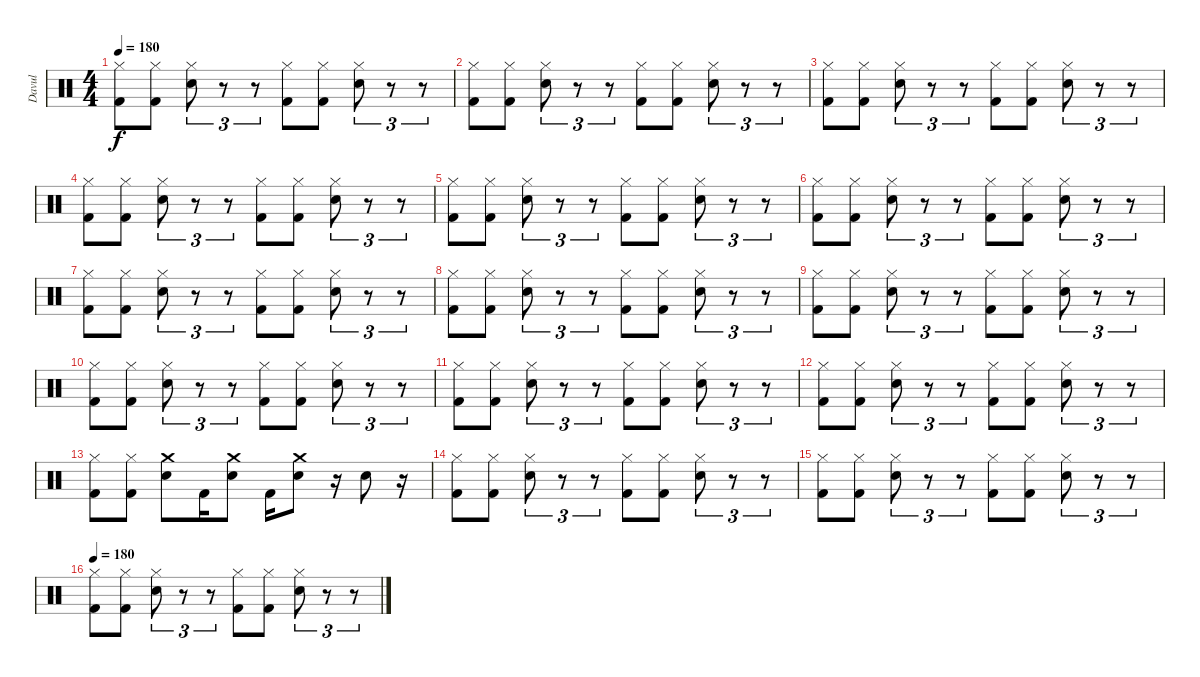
\track ("Davul" "Davul") {instrument percussion}
\staff {score}
\articulation defaults
\ts (4 4)
\tempo 180
\clef neutral
\ks c
("Hi-Hat (closed)" "Kick (hit) 2").8{dy f} ("Hi-Hat (closed)" "Kick (hit) 2").8 ("Hi-Hat (closed)" "Snare (hit) 2").8{tu (3 2)} r.8{tu (3 2)} r.8{tu (3 2)} ("Hi-Hat (closed)" "Kick (hit) 2").8 ("Hi-Hat (closed)" "Kick (hit) 2").8 ("Hi-Hat (closed)" "Snare (hit) 2").8{tu (3 2)} r.8{tu (3 2)} r.8{tu (3 2)} |
("Hi-Hat (closed)" "Kick (hit) 2").8 ("Hi-Hat (closed)" "Kick (hit) 2").8 ("Hi-Hat (closed)" "Snare (hit) 2").8{tu (3 2)} r.8{tu (3 2)} r.8{tu (3 2)} ("Hi-Hat (closed)" "Kick (hit) 2").8 ("Hi-Hat (closed)" "Kick (hit) 2").8 ("Hi-Hat (closed)" "Snare (hit) 2").8{tu (3 2)} r.8{tu (3 2)} r.8{tu (3 2)} |
("Hi-Hat (closed)" "Kick (hit) 2").8 ("Hi-Hat (closed)" "Kick (hit) 2").8 ("Hi-Hat (closed)" "Snare (hit) 2").8{tu (3 2)} r.8{tu (3 2)} r.8{tu (3 2)} ("Hi-Hat (closed)" "Kick (hit) 2").8 ("Hi-Hat (closed)" "Kick (hit) 2").8 ("Hi-Hat (closed)" "Snare (hit) 2").8{tu (3 2)} r.8{tu (3 2)} r.8{tu (3 2)} |
("Hi-Hat (closed)" "Kick (hit) 2").8 ("Hi-Hat (closed)" "Kick (hit) 2").8 ("Hi-Hat (closed)" "Snare (hit) 2").8{tu (3 2)} r.8{tu (3 2)} r.8{tu (3 2)} ("Hi-Hat (closed)" "Kick (hit) 2").8 ("Hi-Hat (closed)" "Kick (hit) 2").8 ("Hi-Hat (closed)" "Snare (hit) 2").8{tu (3 2)} r.8{tu (3 2)} r.8{tu (3 2)} |
("Hi-Hat (closed)" "Kick (hit) 2").8 ("Hi-Hat (closed)" "Kick (hit) 2").8 ("Hi-Hat (closed)" "Snare (hit) 2").8{tu (3 2)} r.8{tu (3 2)} r.8{tu (3 2)} ("Hi-Hat (closed)" "Kick (hit) 2").8 ("Hi-Hat (closed)" "Kick (hit) 2").8 ("Hi-Hat (closed)" "Snare (hit) 2").8{tu (3 2)} r.8{tu (3 2)} r.8{tu (3 2)} |
("Hi-Hat (closed)" "Kick (hit) 2").8 ("Hi-Hat (closed)" "Kick (hit) 2").8 ("Hi-Hat (closed)" "Snare (hit) 2").8{tu (3 2)} r.8{tu (3 2)} r.8{tu (3 2)} ("Hi-Hat (closed)" "Kick (hit) 2").8 ("Hi-Hat (closed)" "Kick (hit) 2").8 ("Hi-Hat (closed)" "Snare (hit) 2").8{tu (3 2)} r.8{tu (3 2)} r.8{tu (3 2)} |
("Hi-Hat (closed)" "Kick (hit) 2").8 ("Hi-Hat (closed)" "Kick (hit) 2").8 ("Hi-Hat (closed)" "Snare (hit) 2").8{tu (3 2)} r.8{tu (3 2)} r.8{tu (3 2)} ("Hi-Hat (closed)" "Kick (hit) 2").8 ("Hi-Hat (closed)" "Kick (hit) 2").8 ("Hi-Hat (closed)" "Snare (hit) 2").8{tu (3 2)} r.8{tu (3 2)} r.8{tu (3 2)} |
("Hi-Hat (closed)" "Kick (hit) 2").8 ("Hi-Hat (closed)" "Kick (hit) 2").8 ("Hi-Hat (closed)" "Snare (hit) 2").8{tu (3 2)} r.8{tu (3 2)} r.8{tu (3 2)} ("Hi-Hat (closed)" "Kick (hit) 2").8 ("Hi-Hat (closed)" "Kick (hit) 2").8 ("Hi-Hat (closed)" "Snare (hit) 2").8{tu (3 2)} r.8{tu (3 2)} r.8{tu (3 2)} |
("Hi-Hat (closed)" "Kick (hit) 2").8 ("Hi-Hat (closed)" "Kick (hit) 2").8 ("Hi-Hat (closed)" "Snare (hit) 2").8{tu (3 2)} r.8{tu (3 2)} r.8{tu (3 2)} ("Hi-Hat (closed)" "Kick (hit) 2").8 ("Hi-Hat (closed)" "Kick (hit) 2").8 ("Hi-Hat (closed)" "Snare (hit) 2").8{tu (3 2)} r.8{tu (3 2)} r.8{tu (3 2)} |
("Hi-Hat (closed)" "Kick (hit) 2").8 ("Hi-Hat (closed)" "Kick (hit) 2").8 ("Hi-Hat (closed)" "Snare (hit) 2").8{tu (3 2)} r.8{tu (3 2)} r.8{tu (3 2)} ("Hi-Hat (closed)" "Kick (hit) 2").8 ("Hi-Hat (closed)" "Kick (hit) 2").8 ("Hi-Hat (closed)" "Snare (hit) 2").8{tu (3 2)} r.8{tu (3 2)} r.8{tu (3 2)} |
("Hi-Hat (closed)" "Kick (hit) 2").8 ("Hi-Hat (closed)" "Kick (hit) 2").8 ("Hi-Hat (closed)" "Snare (hit) 2").8{tu (3 2)} r.8{tu (3 2)} r.8{tu (3 2)} ("Hi-Hat (closed)" "Kick (hit) 2").8 ("Hi-Hat (closed)" "Kick (hit) 2").8 ("Hi-Hat (closed)" "Snare (hit) 2").8{tu (3 2)} r.8{tu (3 2)} r.8{tu (3 2)} |
("Hi-Hat (closed)" "Kick (hit) 2").8 ("Hi-Hat (closed)" "Kick (hit) 2").8 ("Hi-Hat (closed)" "Snare (hit) 2").8{tu (3 2)} r.8{tu (3 2)} r.8{tu (3 2)} ("Hi-Hat (closed)" "Kick (hit) 2").8 ("Hi-Hat (closed)" "Kick (hit) 2").8 ("Hi-Hat (closed)" "Snare (hit) 2").8{tu (3 2)} r.8{tu (3 2)} r.8{tu (3 2)} |
("Hi-Hat (closed)" "Kick (hit) 2").8 ("Hi-Hat (closed)" "Kick (hit) 2").8 ("Crash medium (hit)" "Snare (hit) 2").8 "Kick (hit) 2".16 ("Crash medium (hit)" "Snare (hit) 2").8 "Kick (hit) 2".16 ("Crash medium (hit)" "Snare (hit) 2").8 r.16 "Snare (hit) 2".8 r.16 |
("Hi-Hat (closed)" "Kick (hit) 2").8 ("Hi-Hat (closed)" "Kick (hit) 2").8 ("Hi-Hat (closed)" "Snare (hit) 2").8{tu (3 2)} r.8{tu (3 2)} r.8{tu (3 2)} ("Hi-Hat (closed)" "Kick (hit) 2").8 ("Hi-Hat (closed)" "Kick (hit) 2").8 ("Hi-Hat (closed)" "Snare (hit) 2").8{tu (3 2)} r.8{tu (3 2)} r.8{tu (3 2)} |
("Hi-Hat (closed)" "Kick (hit) 2").8 ("Hi-Hat (closed)" "Kick (hit) 2").8 ("Hi-Hat (closed)" "Snare (hit) 2").8{tu (3 2)} r.8{tu (3 2)} r.8{tu (3 2)} ("Hi-Hat (closed)" "Kick (hit) 2").8 ("Hi-Hat (closed)" "Kick (hit) 2").8 ("Hi-Hat (closed)" "Snare (hit) 2").8{tu (3 2)} r.8{tu (3 2)} r.8{tu (3 2)} |
\tempo 180
("Hi-Hat (closed)" "Kick (hit) 2").8 ("Hi-Hat (closed)" "Kick (hit) 2").8 ("Hi-Hat (closed)" "Snare (hit) 2").8{tu (3 2)} r.8{tu (3 2)} r.8{tu (3 2)} ("Hi-Hat (closed)" "Kick (hit) 2").8 ("Hi-Hat (closed)" "Kick (hit) 2").8 ("Hi-Hat (closed)" "Snare (hit) 2").8{tu (3 2)} r.8{tu (3 2)} r.8{tu (3 2)}
